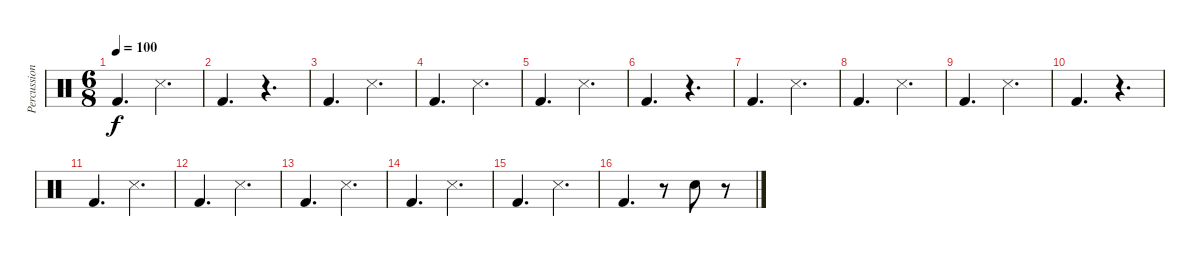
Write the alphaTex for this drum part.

\track ("Percussion" "Percussion") {instrument percussion}
\staff {score}
\articulation defaults
\ts (6 8)
\tempo 100
\clef neutral
\ks c "Kick (hit) 2".4{d dy f} "Snare (side stick) 3".4{d}
|
"Kick (hit) 2".4{d} r.4{d} |
"Kick (hit) 2".4{d} "Snare (side stick) 3".4{d} |
"Kick (hit) 2".4{d} "Snare (side stick) 3".4{d} |
"Kick (hit) 2".4{d} "Snare (side stick) 3".4{d} |
"Kick (hit) 2".4{d} r.4{d} |
"Kick (hit) 2".4{d} "Snare (side stick) 3".4{d} |
"Kick (hit) 2".4{d} "Snare (side stick) 3".4{d} |
"Kick (hit) 2".4{d} "Snare (side stick) 3".4{d} |
"Kick (hit) 2".4{d} r.4{d} |
"Kick (hit) 2".4{d} "Snare (side stick) 3".4{d} |
"Kick (hit) 2".4{d} "Snare (side stick) 3".4{d} |
"Kick (hit) 2".4{d} "Snare (side stick) 3".4{d} |
"Kick (hit) 2".4{d} "Snare (side stick) 3".4{d} |
"Kick (hit) 2".4{d} "Snare (side stick) 3".4{d} |
"Kick (hit) 2".4{d} r.8 "Snare (hit) 2".8 r.8
